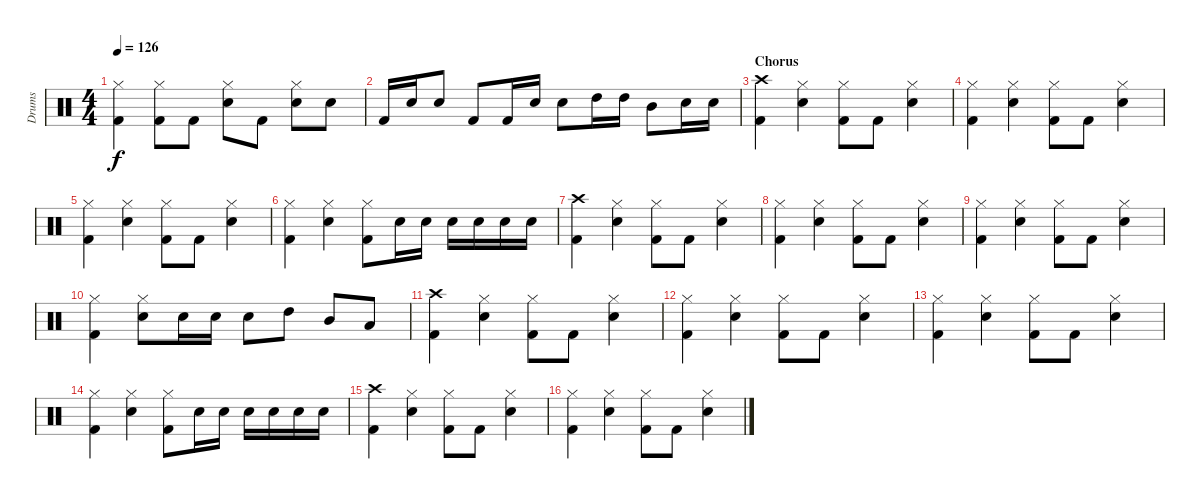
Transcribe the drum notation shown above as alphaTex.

\track ("Drums" "Drums") {instrument percussion}
\staff {score}
\articulation defaults
\ts (4 4)
\tempo 126
\clef neutral
\ks c
("Hi-Hat (closed)" "Kick (hit) 2").4{dy f} ("Hi-Hat (closed)" "Kick (hit) 2").8 "Kick (hit) 2".8 ("Hi-Hat (closed)" "Snare (hit) 2").8 "Kick (hit) 2".8 ("Hi-Hat (closed)" "Snare (hit) 2").8 "Snare (hit) 2".8 |
"Kick (hit) 2".16 "Snare (hit) 2".16 "Snare (hit) 2".8 "Kick (hit) 2".8 "Kick (hit) 2".16 "Snare (hit) 2".16 "Snare (hit) 2".8 "High Tom (hit)".16 "High Tom (hit)".16 "Mid Tom (hit)".8 "Snare (hit) 2".16 "Snare (hit) 2".16 |
\section ("" "Chorus")
("Crash high (hit)" "Kick (hit) 2").4 ("Hi-Hat (closed)" "Snare (hit) 2").4 ("Hi-Hat (closed)" "Kick (hit) 2").8 "Kick (hit) 2".8 ("Hi-Hat (closed)" "Snare (hit) 2").4 |
("Hi-Hat (closed)" "Kick (hit) 2").4 ("Hi-Hat (closed)" "Snare (hit) 2").4 ("Hi-Hat (closed)" "Kick (hit) 2").8 "Kick (hit) 2".8 ("Hi-Hat (closed)" "Snare (hit) 2").4 |
("Hi-Hat (closed)" "Kick (hit) 2").4 ("Hi-Hat (closed)" "Snare (hit) 2").4 ("Hi-Hat (closed)" "Kick (hit) 2").8 "Kick (hit) 2".8 ("Hi-Hat (closed)" "Snare (hit) 2").4 |
("Hi-Hat (closed)" "Kick (hit) 2").4 ("Hi-Hat (closed)" "Snare (hit) 2").4 ("Hi-Hat (closed)" "Kick (hit) 2").8 "Snare (hit) 2".16 "Snare (hit) 2".16 "Snare (hit) 2".16 "Snare (hit) 2".16 "Snare (hit) 2".16 "Snare (hit) 2".16 |
("Crash high (hit)" "Kick (hit) 2").4 ("Hi-Hat (closed)" "Snare (hit) 2").4 ("Hi-Hat (closed)" "Kick (hit) 2").8 "Kick (hit) 2".8 ("Hi-Hat (closed)" "Snare (hit) 2").4 |
("Hi-Hat (closed)" "Kick (hit) 2").4 ("Hi-Hat (closed)" "Snare (hit) 2").4 ("Hi-Hat (closed)" "Kick (hit) 2").8 "Kick (hit) 2".8 ("Hi-Hat (closed)" "Snare (hit) 2").4 |
("Hi-Hat (closed)" "Kick (hit) 2").4 ("Hi-Hat (closed)" "Snare (hit) 2").4 ("Hi-Hat (closed)" "Kick (hit) 2").8 "Kick (hit) 2".8 ("Hi-Hat (closed)" "Snare (hit) 2").4 |
("Hi-Hat (closed)" "Kick (hit) 2").4 ("Hi-Hat (closed)" "Snare (hit) 2").8 "Snare (hit) 2".16 "Snare (hit) 2".16 "Snare (hit) 2".8 "High Tom (hit)".8 "Mid Tom (hit)".8 "Low Tom (hit)".8 |
("Crash high (hit)" "Kick (hit) 2").4 ("Hi-Hat (closed)" "Snare (hit) 2").4 ("Hi-Hat (closed)" "Kick (hit) 2").8 "Kick (hit) 2".8 ("Hi-Hat (closed)" "Snare (hit) 2").4 |
("Hi-Hat (closed)" "Kick (hit) 2").4 ("Hi-Hat (closed)" "Snare (hit) 2").4 ("Hi-Hat (closed)" "Kick (hit) 2").8 "Kick (hit) 2".8 ("Hi-Hat (closed)" "Snare (hit) 2").4 |
("Hi-Hat (closed)" "Kick (hit) 2").4 ("Hi-Hat (closed)" "Snare (hit) 2").4 ("Hi-Hat (closed)" "Kick (hit) 2").8 "Kick (hit) 2".8 ("Hi-Hat (closed)" "Snare (hit) 2").4 |
("Hi-Hat (closed)" "Kick (hit) 2").4 ("Hi-Hat (closed)" "Snare (hit) 2").4 ("Hi-Hat (closed)" "Kick (hit) 2").8 "Snare (hit) 2".16 "Snare (hit) 2".16 "Snare (hit) 2".16 "Snare (hit) 2".16 "Snare (hit) 2".16 "Snare (hit) 2".16 |
("Crash high (hit)" "Kick (hit) 2").4 ("Hi-Hat (closed)" "Snare (hit) 2").4 ("Hi-Hat (closed)" "Kick (hit) 2").8 "Kick (hit) 2".8 ("Hi-Hat (closed)" "Snare (hit) 2").4 |
("Hi-Hat (closed)" "Kick (hit) 2").4 ("Hi-Hat (closed)" "Snare (hit) 2").4 ("Hi-Hat (closed)" "Kick (hit) 2").8 "Kick (hit) 2".8 ("Hi-Hat (closed)" "Snare (hit) 2").4
